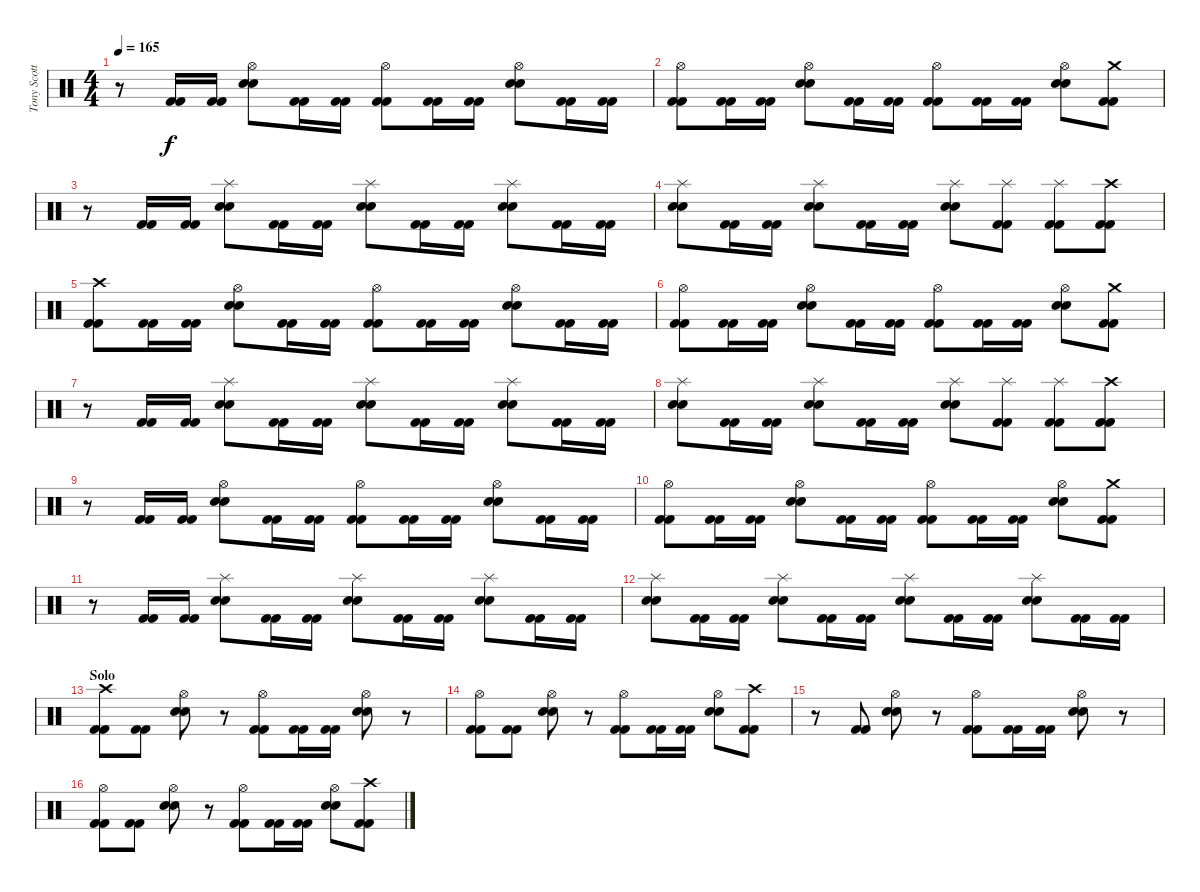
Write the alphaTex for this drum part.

\track ("Tony Scotto (bateria)" "Tony Scott") {instrument percussion}
\staff {score}
\articulation defaults
\ts (4 4)
\tempo 165
\clef neutral
\ks c
r.8{dy f} ("Kick (hit) 2" "Kick (hit) 2").16 ("Kick (hit) 2" "Kick (hit) 2").16 ("Hi-Hat (open)" "Snare (hit) 2" "Snare (hit) 2").8 ("Kick (hit) 2" "Kick (hit) 2").16 ("Kick (hit) 2" "Kick (hit) 2").16 ("Hi-Hat (open)" "Kick (hit) 2" "Kick (hit) 2").8 ("Kick (hit) 2" "Kick (hit) 2").16 ("Kick (hit) 2" "Kick (hit) 2").16 ("Hi-Hat (open)" "Snare (hit) 2" "Snare (hit) 2").8 ("Kick (hit) 2" "Kick (hit) 2").16 ("Kick (hit) 2" "Kick (hit) 2").16 |
("Hi-Hat (open)" "Kick (hit) 2" "Kick (hit) 2").8 ("Kick (hit) 2" "Kick (hit) 2").16 ("Kick (hit) 2" "Kick (hit) 2").16 ("Hi-Hat (open)" "Snare (hit) 2" "Snare (hit) 2").8 ("Kick (hit) 2" "Kick (hit) 2").16 ("Kick (hit) 2" "Kick (hit) 2").16 ("Hi-Hat (open)" "Kick (hit) 2" "Kick (hit) 2").8 ("Kick (hit) 2" "Kick (hit) 2").16 ("Kick (hit) 2" "Kick (hit) 2").16 ("Hi-Hat (open)" "Snare (hit) 2" "Snare (hit) 2").8 ("Crash medium (hit)" "Kick (hit) 2" "Kick (hit) 2").8 |
r.8 ("Kick (hit) 2" "Kick (hit) 2").16 ("Kick (hit) 2" "Kick (hit) 2").16 ("Splash (hit)" "Snare (hit) 2" "Snare (hit) 2").8 ("Kick (hit) 2" "Kick (hit) 2").16 ("Kick (hit) 2" "Kick (hit) 2").16 ("Splash (hit)" "Snare (hit) 2" "Snare (hit) 2").8 ("Kick (hit) 2" "Kick (hit) 2").16 ("Kick (hit) 2" "Kick (hit) 2").16 ("Splash (hit)" "Snare (hit) 2" "Snare (hit) 2").8 ("Kick (hit) 2" "Kick (hit) 2").16 ("Kick (hit) 2" "Kick (hit) 2").16 |
("Splash (hit)" "Snare (hit) 2" "Snare (hit) 2").8 ("Kick (hit) 2" "Kick (hit) 2").16 ("Kick (hit) 2" "Kick (hit) 2").16 ("Splash (hit)" "Snare (hit) 2" "Snare (hit) 2").8 ("Kick (hit) 2" "Kick (hit) 2").16 ("Kick (hit) 2" "Kick (hit) 2").16 ("Splash (hit)" "Snare (hit) 2" "Snare (hit) 2").8 ("Splash (hit)" "Kick (hit) 2" "Kick (hit) 2").8 ("Splash (hit)" "Kick (hit) 2" "Kick (hit) 2").8 ("Crash high (hit)" "Kick (hit) 2" "Kick (hit) 2").8 |
("Crash high (hit)" "Kick (hit) 2" "Kick (hit) 2").8 ("Kick (hit) 2" "Kick (hit) 2").16 ("Kick (hit) 2" "Kick (hit) 2").16 ("Hi-Hat (open)" "Snare (hit) 2" "Snare (hit) 2").8 ("Kick (hit) 2" "Kick (hit) 2").16 ("Kick (hit) 2" "Kick (hit) 2").16 ("Hi-Hat (open)" "Kick (hit) 2" "Kick (hit) 2").8 ("Kick (hit) 2" "Kick (hit) 2").16 ("Kick (hit) 2" "Kick (hit) 2").16 ("Hi-Hat (open)" "Snare (hit) 2" "Snare (hit) 2").8 ("Kick (hit) 2" "Kick (hit) 2").16 ("Kick (hit) 2" "Kick (hit) 2").16 |
("Hi-Hat (open)" "Kick (hit) 2" "Kick (hit) 2").8 ("Kick (hit) 2" "Kick (hit) 2").16 ("Kick (hit) 2" "Kick (hit) 2").16 ("Hi-Hat (open)" "Snare (hit) 2" "Snare (hit) 2").8 ("Kick (hit) 2" "Kick (hit) 2").16 ("Kick (hit) 2" "Kick (hit) 2").16 ("Hi-Hat (open)" "Kick (hit) 2" "Kick (hit) 2").8 ("Kick (hit) 2" "Kick (hit) 2").16 ("Kick (hit) 2" "Kick (hit) 2").16 ("Hi-Hat (open)" "Snare (hit) 2" "Snare (hit) 2").8 ("Crash medium (hit)" "Kick (hit) 2" "Kick (hit) 2").8 |
r.8 ("Kick (hit) 2" "Kick (hit) 2").16 ("Kick (hit) 2" "Kick (hit) 2").16 ("Splash (hit)" "Snare (hit) 2" "Snare (hit) 2").8 ("Kick (hit) 2" "Kick (hit) 2").16 ("Kick (hit) 2" "Kick (hit) 2").16 ("Splash (hit)" "Snare (hit) 2" "Snare (hit) 2").8 ("Kick (hit) 2" "Kick (hit) 2").16 ("Kick (hit) 2" "Kick (hit) 2").16 ("Splash (hit)" "Snare (hit) 2" "Snare (hit) 2").8 ("Kick (hit) 2" "Kick (hit) 2").16 ("Kick (hit) 2" "Kick (hit) 2").16 |
("Splash (hit)" "Snare (hit) 2" "Snare (hit) 2").8 ("Kick (hit) 2" "Kick (hit) 2").16 ("Kick (hit) 2" "Kick (hit) 2").16 ("Splash (hit)" "Snare (hit) 2" "Snare (hit) 2").8 ("Kick (hit) 2" "Kick (hit) 2").16 ("Kick (hit) 2" "Kick (hit) 2").16 ("Splash (hit)" "Snare (hit) 2" "Snare (hit) 2").8 ("Splash (hit)" "Kick (hit) 2" "Kick (hit) 2").8 ("Splash (hit)" "Kick (hit) 2" "Kick (hit) 2").8 ("Crash high (hit)" "Kick (hit) 2" "Kick (hit) 2").8 |
r.8 ("Kick (hit) 2" "Kick (hit) 2").16 ("Kick (hit) 2" "Kick (hit) 2").16 ("Hi-Hat (open)" "Snare (hit) 2" "Snare (hit) 2").8 ("Kick (hit) 2" "Kick (hit) 2").16 ("Kick (hit) 2" "Kick (hit) 2").16 ("Hi-Hat (open)" "Kick (hit) 2" "Kick (hit) 2").8 ("Kick (hit) 2" "Kick (hit) 2").16 ("Kick (hit) 2" "Kick (hit) 2").16 ("Hi-Hat (open)" "Snare (hit) 2" "Snare (hit) 2").8 ("Kick (hit) 2" "Kick (hit) 2").16 ("Kick (hit) 2" "Kick (hit) 2").16 |
("Hi-Hat (open)" "Kick (hit) 2" "Kick (hit) 2").8 ("Kick (hit) 2" "Kick (hit) 2").16 ("Kick (hit) 2" "Kick (hit) 2").16 ("Hi-Hat (open)" "Snare (hit) 2" "Snare (hit) 2").8 ("Kick (hit) 2" "Kick (hit) 2").16 ("Kick (hit) 2" "Kick (hit) 2").16 ("Hi-Hat (open)" "Kick (hit) 2" "Kick (hit) 2").8 ("Kick (hit) 2" "Kick (hit) 2").16 ("Kick (hit) 2" "Kick (hit) 2").16 ("Hi-Hat (open)" "Snare (hit) 2" "Snare (hit) 2").8 ("Crash medium (hit)" "Kick (hit) 2" "Kick (hit) 2").8 |
r.8 ("Kick (hit) 2" "Kick (hit) 2").16 ("Kick (hit) 2" "Kick (hit) 2").16 ("Splash (hit)" "Snare (hit) 2" "Snare (hit) 2").8 ("Kick (hit) 2" "Kick (hit) 2").16 ("Kick (hit) 2" "Kick (hit) 2").16 ("Splash (hit)" "Snare (hit) 2" "Snare (hit) 2").8 ("Kick (hit) 2" "Kick (hit) 2").16 ("Kick (hit) 2" "Kick (hit) 2").16 ("Splash (hit)" "Snare (hit) 2" "Snare (hit) 2").8 ("Kick (hit) 2" "Kick (hit) 2").16 ("Kick (hit) 2" "Kick (hit) 2").16 |
("Splash (hit)" "Snare (hit) 2" "Snare (hit) 2").8 ("Kick (hit) 2" "Kick (hit) 2").16 ("Kick (hit) 2" "Kick (hit) 2").16 ("Splash (hit)" "Snare (hit) 2" "Snare (hit) 2").8 ("Kick (hit) 2" "Kick (hit) 2").16 ("Kick (hit) 2" "Kick (hit) 2").16 ("Splash (hit)" "Snare (hit) 2" "Snare (hit) 2").8 ("Kick (hit) 2" "Kick (hit) 2").16 ("Kick (hit) 2" "Kick (hit) 2").16 ("Splash (hit)" "Snare (hit) 2" "Snare (hit) 2").8 ("Kick (hit) 2" "Kick (hit) 2").16 ("Kick (hit) 2" "Kick (hit) 2").16 |
\section ("" "Solo")
("Crash high (hit)" "Kick (hit) 2" "Kick (hit) 2").8 ("Kick (hit) 2" "Kick (hit) 2").8 ("Hi-Hat (open)" "Snare (hit) 2" "Snare (hit) 2").8 r.8 ("Hi-Hat (open)" "Kick (hit) 2" "Kick (hit) 2").8 ("Kick (hit) 2" "Kick (hit) 2").16 ("Kick (hit) 2" "Kick (hit) 2").16 ("Hi-Hat (open)" "Snare (hit) 2" "Snare (hit) 2").8 r.8 |
("Hi-Hat (open)" "Kick (hit) 2" "Kick (hit) 2").8 ("Kick (hit) 2" "Kick (hit) 2").8 ("Hi-Hat (open)" "Snare (hit) 2" "Snare (hit) 2").8 r.8 ("Hi-Hat (open)" "Kick (hit) 2" "Kick (hit) 2").8 ("Kick (hit) 2" "Kick (hit) 2").16 ("Kick (hit) 2" "Kick (hit) 2").16 ("Hi-Hat (open)" "Snare (hit) 2" "Snare (hit) 2").8 ("Crash high (hit)" "Kick (hit) 2" "Kick (hit) 2").8 |
r.8 ("Kick (hit) 2" "Kick (hit) 2").8 ("Hi-Hat (open)" "Snare (hit) 2" "Snare (hit) 2").8 r.8 ("Hi-Hat (open)" "Kick (hit) 2" "Kick (hit) 2").8 ("Kick (hit) 2" "Kick (hit) 2").16 ("Kick (hit) 2" "Kick (hit) 2").16 ("Hi-Hat (open)" "Snare (hit) 2" "Snare (hit) 2").8 r.8 |
("Hi-Hat (open)" "Kick (hit) 2" "Kick (hit) 2").8 ("Kick (hit) 2" "Kick (hit) 2").8 ("Hi-Hat (open)" "Snare (hit) 2" "Snare (hit) 2").8 r.8 ("Hi-Hat (open)" "Kick (hit) 2" "Kick (hit) 2").8 ("Kick (hit) 2" "Kick (hit) 2").16 ("Kick (hit) 2" "Kick (hit) 2").16 ("Hi-Hat (open)" "Snare (hit) 2" "Snare (hit) 2").8 ("Crash high (hit)" "Kick (hit) 2" "Kick (hit) 2").8
